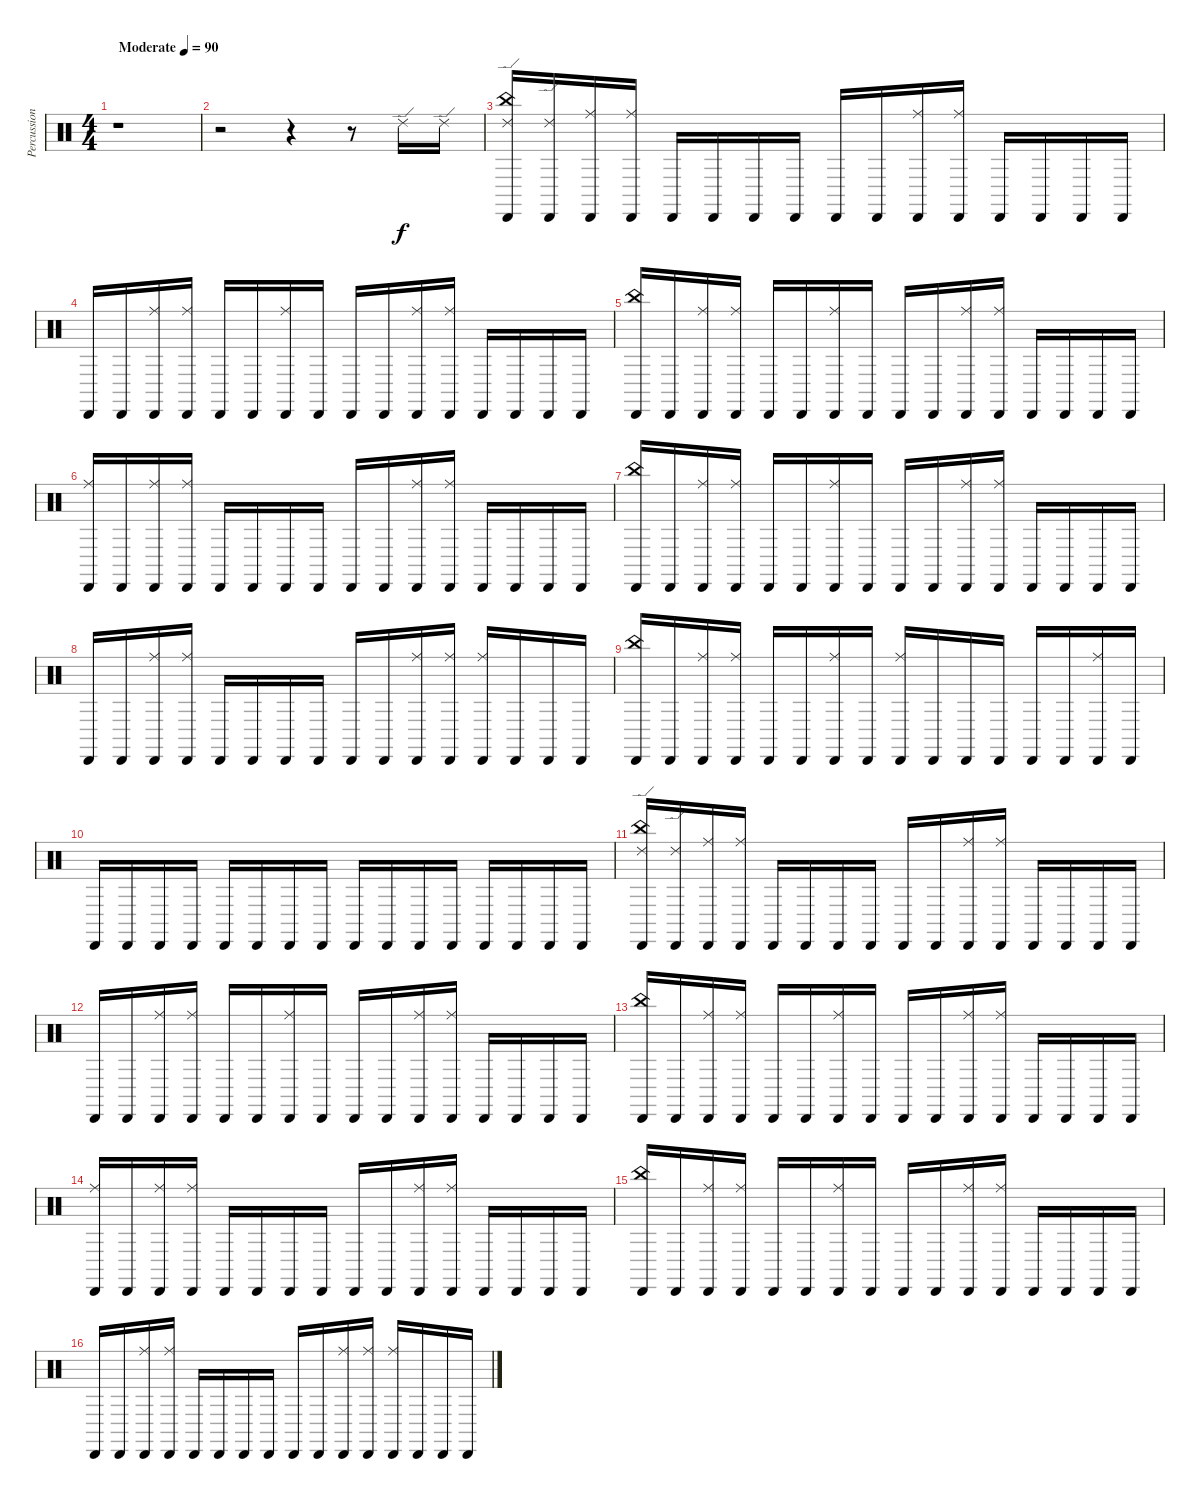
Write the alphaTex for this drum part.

\track ("Percussions by Marc Lavoo" "Percussion") {instrument percussion}
\staff {score}
\articulation defaults
\ts (4 4)
\tempo (90 "Moderate")
\clef neutral
\ks c
r.1{dy f} |
r.2 r.4 r.8 "Ride (edge) 2".16 "Ride (edge) 2".16 |
("Cabasa (hit)" "China (hit)" "Ride (edge) 2").16 ("Cabasa (hit)" "Ride (edge) 2").16 ("Cabasa (hit)" "Ride (middle)").16 ("Cabasa (hit)" "Ride (middle)").16 "Cabasa (hit)".16 "Cabasa (hit)".16 "Cabasa (hit)".16 "Cabasa (hit)".16 "Cabasa (hit)".16 "Cabasa (hit)".16 ("Cabasa (hit)" "Ride (middle)").16 ("Cabasa (hit)" "Ride (middle)").16 "Cabasa (hit)".16 "Cabasa (hit)".16 "Cabasa (hit)".16 "Cabasa (hit)".16 |
"Cabasa (hit)".16 "Cabasa (hit)".16 ("Cabasa (hit)" "Ride (middle)").16 ("Cabasa (hit)" "Ride (middle)").16 "Cabasa (hit)".16 "Cabasa (hit)".16 ("Cabasa (hit)" "Ride (middle)").16 "Cabasa (hit)".16 "Cabasa (hit)".16 "Cabasa (hit)".16 ("Cabasa (hit)" "Ride (middle)").16 ("Cabasa (hit)" "Ride (middle)").16 "Cabasa (hit)".16 "Cabasa (hit)".16 "Cabasa (hit)".16 "Cabasa (hit)".16 |
("Cabasa (hit)" "China (hit)").16 "Cabasa (hit)".16 ("Cabasa (hit)" "Ride (middle)").16 ("Cabasa (hit)" "Ride (middle)").16 "Cabasa (hit)".16 "Cabasa (hit)".16 ("Cabasa (hit)" "Ride (middle)").16 "Cabasa (hit)".16 "Cabasa (hit)".16 "Cabasa (hit)".16 ("Cabasa (hit)" "Ride (middle)").16 ("Cabasa (hit)" "Ride (middle)").16 "Cabasa (hit)".16 "Cabasa (hit)".16 "Cabasa (hit)".16 "Cabasa (hit)".16 |
("Cabasa (hit)" "Ride (middle)").16 "Cabasa (hit)".16 ("Cabasa (hit)" "Ride (middle)").16 ("Cabasa (hit)" "Ride (middle)").16 "Cabasa (hit)".16 "Cabasa (hit)".16 "Cabasa (hit)".16 "Cabasa (hit)".16 "Cabasa (hit)".16 "Cabasa (hit)".16 ("Cabasa (hit)" "Ride (middle)").16 ("Cabasa (hit)" "Ride (middle)").16 "Cabasa (hit)".16 "Cabasa (hit)".16 "Cabasa (hit)".16 "Cabasa (hit)".16 |
("Cabasa (hit)" "China (hit)").16 "Cabasa (hit)".16 ("Cabasa (hit)" "Ride (middle)").16 ("Cabasa (hit)" "Ride (middle)").16 "Cabasa (hit)".16 "Cabasa (hit)".16 ("Cabasa (hit)" "Ride (middle)").16 "Cabasa (hit)".16 "Cabasa (hit)".16 "Cabasa (hit)".16 ("Cabasa (hit)" "Ride (middle)").16 ("Cabasa (hit)" "Ride (middle)").16 "Cabasa (hit)".16 "Cabasa (hit)".16 "Cabasa (hit)".16 "Cabasa (hit)".16 |
"Cabasa (hit)".16 "Cabasa (hit)".16 ("Cabasa (hit)" "Ride (middle)").16 ("Cabasa (hit)" "Ride (middle)").16 "Cabasa (hit)".16 "Cabasa (hit)".16 "Cabasa (hit)".16 "Cabasa (hit)".16 "Cabasa (hit)".16 "Cabasa (hit)".16 ("Cabasa (hit)" "Ride (middle)").16 ("Cabasa (hit)" "Ride (middle)").16 ("Cabasa (hit)" "Ride (middle)").16 "Cabasa (hit)".16 "Cabasa (hit)".16 "Cabasa (hit)".16 |
("Cabasa (hit)" "China (hit)").16 "Cabasa (hit)".16 ("Cabasa (hit)" "Ride (middle)").16 ("Cabasa (hit)" "Ride (middle)").16 "Cabasa (hit)".16 "Cabasa (hit)".16 ("Cabasa (hit)" "Ride (middle)").16 "Cabasa (hit)".16 ("Cabasa (hit)" "Ride (middle)").16 "Cabasa (hit)".16 "Cabasa (hit)".16 "Cabasa (hit)".16 "Cabasa (hit)".16 "Cabasa (hit)".16 ("Cabasa (hit)" "Ride (middle)").16 "Cabasa (hit)".16 |
"Cabasa (hit)".16 "Cabasa (hit)".16 "Cabasa (hit)".16 "Cabasa (hit)".16 "Cabasa (hit)".16 "Cabasa (hit)".16 "Cabasa (hit)".16 "Cabasa (hit)".16 "Cabasa (hit)".16 "Cabasa (hit)".16 "Cabasa (hit)".16 "Cabasa (hit)".16 "Cabasa (hit)".16 "Cabasa (hit)".16 "Cabasa (hit)".16 "Cabasa (hit)".16 |
("Cabasa (hit)" "China (hit)" "Ride (edge) 2").16 ("Cabasa (hit)" "Ride (edge) 2").16 ("Cabasa (hit)" "Ride (middle)").16 ("Cabasa (hit)" "Ride (middle)").16 "Cabasa (hit)".16 "Cabasa (hit)".16 "Cabasa (hit)".16 "Cabasa (hit)".16 "Cabasa (hit)".16 "Cabasa (hit)".16 ("Cabasa (hit)" "Ride (middle)").16 ("Cabasa (hit)" "Ride (middle)").16 "Cabasa (hit)".16 "Cabasa (hit)".16 "Cabasa (hit)".16 "Cabasa (hit)".16 |
"Cabasa (hit)".16 "Cabasa (hit)".16 ("Cabasa (hit)" "Ride (middle)").16 ("Cabasa (hit)" "Ride (middle)").16 "Cabasa (hit)".16 "Cabasa (hit)".16 ("Cabasa (hit)" "Ride (middle)").16 "Cabasa (hit)".16 "Cabasa (hit)".16 "Cabasa (hit)".16 ("Cabasa (hit)" "Ride (middle)").16 ("Cabasa (hit)" "Ride (middle)").16 "Cabasa (hit)".16 "Cabasa (hit)".16 "Cabasa (hit)".16 "Cabasa (hit)".16 |
("Cabasa (hit)" "China (hit)").16 "Cabasa (hit)".16 ("Cabasa (hit)" "Ride (middle)").16 ("Cabasa (hit)" "Ride (middle)").16 "Cabasa (hit)".16 "Cabasa (hit)".16 ("Cabasa (hit)" "Ride (middle)").16 "Cabasa (hit)".16 "Cabasa (hit)".16 "Cabasa (hit)".16 ("Cabasa (hit)" "Ride (middle)").16 ("Cabasa (hit)" "Ride (middle)").16 "Cabasa (hit)".16 "Cabasa (hit)".16 "Cabasa (hit)".16 "Cabasa (hit)".16 |
("Cabasa (hit)" "Ride (middle)").16 "Cabasa (hit)".16 ("Cabasa (hit)" "Ride (middle)").16 ("Cabasa (hit)" "Ride (middle)").16 "Cabasa (hit)".16 "Cabasa (hit)".16 "Cabasa (hit)".16 "Cabasa (hit)".16 "Cabasa (hit)".16 "Cabasa (hit)".16 ("Cabasa (hit)" "Ride (middle)").16 ("Cabasa (hit)" "Ride (middle)").16 "Cabasa (hit)".16 "Cabasa (hit)".16 "Cabasa (hit)".16 "Cabasa (hit)".16 |
("Cabasa (hit)" "China (hit)").16 "Cabasa (hit)".16 ("Cabasa (hit)" "Ride (middle)").16 ("Cabasa (hit)" "Ride (middle)").16 "Cabasa (hit)".16 "Cabasa (hit)".16 ("Cabasa (hit)" "Ride (middle)").16 "Cabasa (hit)".16 "Cabasa (hit)".16 "Cabasa (hit)".16 ("Cabasa (hit)" "Ride (middle)").16 ("Cabasa (hit)" "Ride (middle)").16 "Cabasa (hit)".16 "Cabasa (hit)".16 "Cabasa (hit)".16 "Cabasa (hit)".16 |
"Cabasa (hit)".16 "Cabasa (hit)".16 ("Cabasa (hit)" "Ride (middle)").16 ("Cabasa (hit)" "Ride (middle)").16 "Cabasa (hit)".16 "Cabasa (hit)".16 "Cabasa (hit)".16 "Cabasa (hit)".16 "Cabasa (hit)".16 "Cabasa (hit)".16 ("Cabasa (hit)" "Ride (middle)").16 ("Cabasa (hit)" "Ride (middle)").16 ("Cabasa (hit)" "Ride (middle)").16 "Cabasa (hit)".16 "Cabasa (hit)".16 "Cabasa (hit)".16
